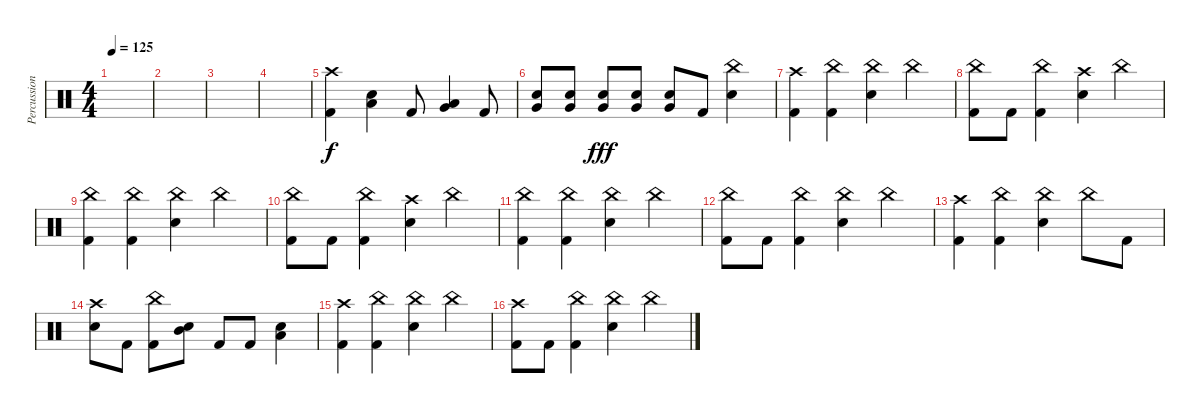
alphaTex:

\track ("Percussion" "Percussion") {instrument percussion}
\staff {score}
\articulation defaults
\ts (4 4)
\tempo 125
\clef neutral
\ks c
|
|
|
|
("Kick (hit) 2" "Crash high (hit)").4 ("Electric Snare (hit)" "Low Tom (hit)").4 "Kick (hit) 2".8 ("Very Low Tom (hit)" "Low Tom (hit)").4 "Kick (hit) 2".8{dy f} |
("Electric Snare (hit)" "Very Low Tom (hit)").8 ("Electric Snare (hit)" "Very Low Tom (hit)").8 ("Very Low Tom (hit)" "Electric Snare (hit)").8{dy fff} ("Very Low Tom (hit)" "Electric Snare (hit)").8 ("Very Low Tom (hit)" "Electric Snare (hit)").8 "Kick (hit) 2".8 ("Electric Snare (hit)" "China (hit)").4 |
("Kick (hit) 2" "Crash high (hit)").4 ("Kick (hit) 2" "China (hit)").4 ("Electric Snare (hit)" "China (hit)").4 "China (hit)".4 |
("Kick (hit) 2" "China (hit)").8 "Kick (hit) 2".8 ("China (hit)" "Kick (hit) 2").4 ("Crash high (hit)" "Electric Snare (hit)").4 "China (hit)".4 |
("Kick (hit) 2" "China (hit)").4 ("Kick (hit) 2" "China (hit)").4 ("Electric Snare (hit)" "China (hit)").4 "China (hit)".4 |
("Kick (hit) 2" "China (hit)").8 "Kick (hit) 2".8 ("China (hit)" "Kick (hit) 2").4 ("Crash high (hit)" "Electric Snare (hit)").4 "China (hit)".4 |
("China (hit)" "Kick (hit) 2").4 ("Kick (hit) 2" "China (hit)").4 ("Electric Snare (hit)" "China (hit)").4 "China (hit)".4 |
("Kick (hit) 2" "China (hit)").8 "Kick (hit) 2".8 ("Kick (hit) 2" "China (hit)").4 ("China (hit)" "Electric Snare (hit)").4 "China (hit)".4 |
("Kick (hit) 2" "Crash high (hit)").4 ("Kick (hit) 2" "China (hit)").4 ("Electric Snare (hit)" "China (hit)").4 "China (hit)".8 "Kick (hit) 2".8 |
("Crash high (hit)" "Electric Snare (hit)").8 "Kick (hit) 2".8 ("Kick (hit) 2" "China (hit)").8 ("Mid Tom (hit)" "Electric Snare (hit)").8 "Kick (hit) 2".8 "Kick (hit) 2".8 ("Low Tom (hit)" "Electric Snare (hit)").4 |
("Kick (hit) 2" "Crash high (hit)").4 ("Kick (hit) 2" "China (hit)").4 ("Electric Snare (hit)" "China (hit)").4 "China (hit)".4 |
("Kick (hit) 2" "Crash high (hit)").8 "Kick (hit) 2".8 ("Kick (hit) 2" "China (hit)").4 ("Electric Snare (hit)" "China (hit)").4 "China (hit)".4
